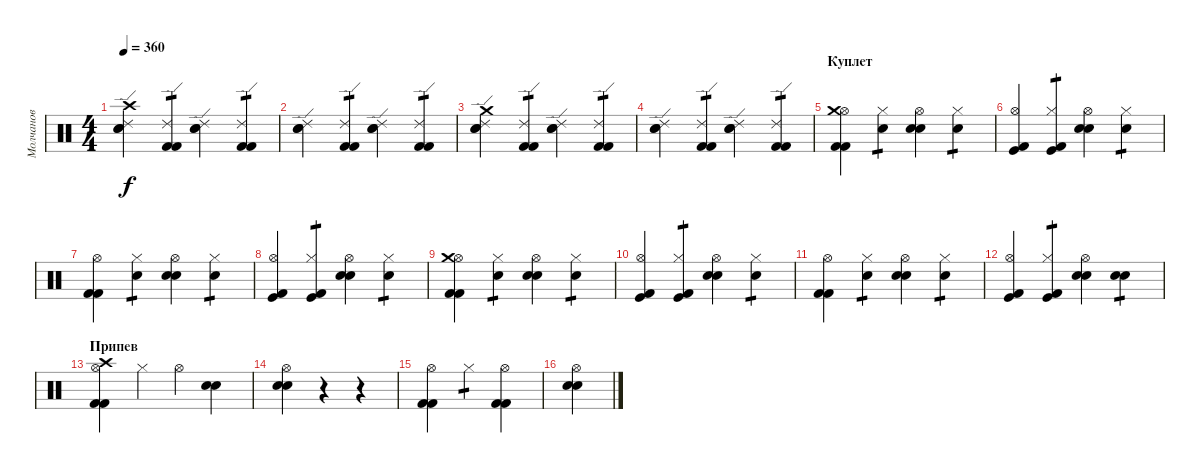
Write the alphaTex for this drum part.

\track ("Молчанов" "Молчанов") {instrument percussion}
\staff {score}
\articulation defaults
\ts (4 4)
\tempo 360
\clef neutral
\ks c
("Ride (edge) 2" "Electric Snare (hit)" "Electric Snare (hit)" "Crash high (hit)").4{dy f} ("Ride (edge) 2" "Kick (hit) 2" "Kick (hit) 2").4{tp 1} ("Ride (edge) 2" "Electric Snare (hit)" "Electric Snare (hit)").4 ("Ride (edge) 2" "Kick (hit) 2" "Kick (hit) 2").4{tp 1} |
("Ride (edge) 2" "Electric Snare (hit)" "Electric Snare (hit)").4 ("Ride (edge) 2" "Kick (hit) 2" "Kick (hit) 2").4{tp 1} ("Ride (edge) 2" "Electric Snare (hit)" "Electric Snare (hit)").4 ("Ride (edge) 2" "Kick (hit) 2" "Kick (hit) 2").4{tp 1} |
("Ride (edge) 2" "Electric Snare (hit)" "Electric Snare (hit)" "Crash medium (hit)").4 ("Ride (edge) 2" "Kick (hit) 2" "Kick (hit) 2").4{tp 1} ("Ride (edge) 2" "Electric Snare (hit)" "Electric Snare (hit)").4 ("Ride (edge) 2" "Kick (hit) 2" "Kick (hit) 2").4{tp 1} |
("Ride (edge) 2" "Electric Snare (hit)" "Electric Snare (hit)").4 ("Ride (edge) 2" "Kick (hit) 2" "Kick (hit) 2").4{tp 1} ("Ride (edge) 2" "Electric Snare (hit)" "Electric Snare (hit)").4 ("Ride (edge) 2" "Kick (hit) 2" "Kick (hit) 2").4{tp 1} |
\section ("" "Куплет")
("Kick (hit) 2" "Kick (hit) 2" "Hi-Hat (open)" "Crash medium (hit)").4 ("Snare (hit)"{x} "Hi-Hat (closed)").4{tp 1} ("Electric Snare (hit)" "Electric Snare (hit)" "Hi-Hat (open)").4 ("Snare (hit)"{x} "Hi-Hat (closed)").4{tp 1} |
("Kick (hit) 2" "Kick (hit)" "Hi-Hat (open)").4 ("Kick (hit) 2" "Kick (hit)" "Hi-Hat (closed)").4{tp 1} ("Electric Snare (hit)" "Electric Snare (hit)" "Hi-Hat (open)").4 ("Snare (hit)"{x} "Hi-Hat (closed)").4{tp 1} |
("Kick (hit) 2" "Kick (hit) 2" "Hi-Hat (open)").4 ("Snare (hit)"{x} "Hi-Hat (closed)").4{tp 1} ("Electric Snare (hit)" "Electric Snare (hit)" "Hi-Hat (open)").4 ("Snare (hit)"{x} "Hi-Hat (closed)").4{tp 1} |
("Kick (hit) 2" "Kick (hit)" "Hi-Hat (open)").4 ("Kick (hit) 2" "Kick (hit)" "Hi-Hat (closed)").4{tp 1} ("Electric Snare (hit)" "Electric Snare (hit)" "Hi-Hat (open)").4 ("Snare (hit)"{x} "Hi-Hat (closed)").4{tp 1} |
("Kick (hit) 2" "Kick (hit) 2" "Hi-Hat (open)" "Crash medium (hit)").4 ("Snare (hit)"{x} "Hi-Hat (closed)").4{tp 1} ("Electric Snare (hit)" "Electric Snare (hit)" "Hi-Hat (open)").4 ("Snare (hit)"{x} "Hi-Hat (closed)").4{tp 1} |
("Kick (hit) 2" "Kick (hit)" "Hi-Hat (open)").4 ("Kick (hit) 2" "Kick (hit)" "Hi-Hat (closed)").4{tp 1} ("Electric Snare (hit)" "Electric Snare (hit)" "Hi-Hat (open)").4 ("Snare (hit)"{x} "Hi-Hat (closed)").4{tp 1} |
("Kick (hit) 2" "Kick (hit) 2" "Hi-Hat (open)").4 ("Snare (hit)"{x} "Hi-Hat (closed)").4{tp 1} ("Electric Snare (hit)" "Electric Snare (hit)" "Hi-Hat (open)").4 ("Snare (hit)"{x} "Hi-Hat (closed)").4{tp 1} |
("Kick (hit) 2" "Kick (hit)" "Hi-Hat (open)").4 ("Kick (hit) 2" "Kick (hit)" "Hi-Hat (closed)").4{tp 1} ("Electric Snare (hit)" "Electric Snare (hit)" "Hi-Hat (open)").4 ("Electric Snare (hit)" "Electric Snare (hit)").4{tp 1} |
\section ("" "Припев")
("Kick (hit) 2" "Kick (hit) 2" "Hi-Hat (open)" "Crash high (hit)").4 "Hi-Hat (closed)"{x}.4 "Hi-Hat (open)"{x}.4 ("Snare (hit)"{x} "Snare (hit)"{x}).4 |
("Electric Snare (hit)" "Electric Snare (hit)" "Hi-Hat (open)").4 r.4 r.4 |
("Kick (hit) 2" "Kick (hit) 2" "Hi-Hat (open)").4 "Hi-Hat (closed)".4{tp 1} ("Kick (hit) 2" "Kick (hit) 2" "Hi-Hat (open)").4 |
("Electric Snare (hit)" "Electric Snare (hit)" "Hi-Hat (open)").4
